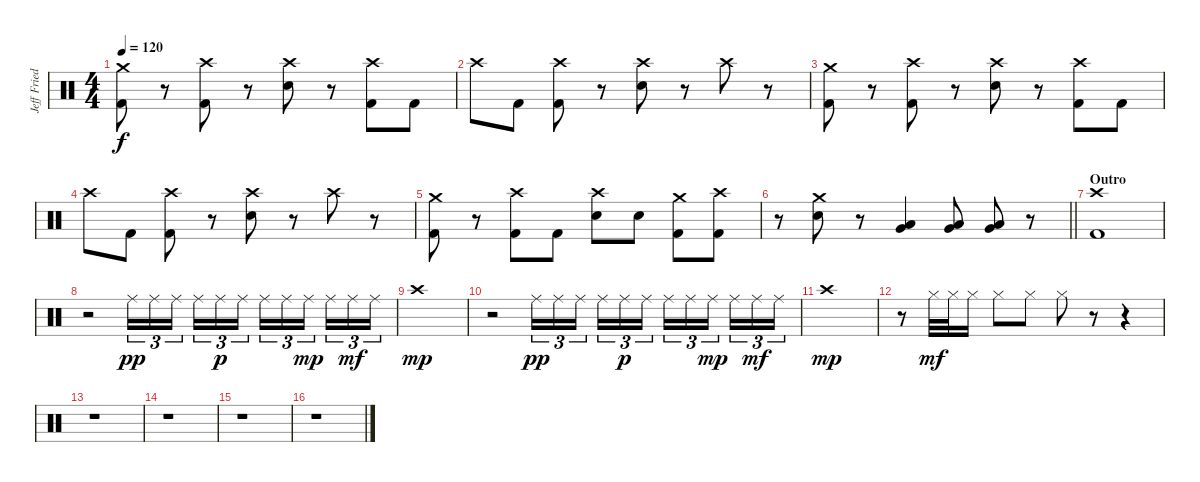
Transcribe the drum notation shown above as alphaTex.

\track ("Jeff Friedl" "Jeff Fried") {instrument percussion}
\staff {score}
\articulation defaults
\ts (4 4)
\tempo 120
\clef neutral
\ks c
("Crash medium (hit)" "Kick (hit) 2").8{dy f} r.8 ("Crash high (hit)" "Kick (hit) 2").8 r.8 ("Crash high (hit)" "Snare (hit) 2").8 r.8 ("Crash high (hit)" "Kick (hit) 2").8 "Kick (hit) 2".8 |
"Crash high (hit)".8 "Kick (hit) 2".8 ("Crash high (hit)" "Kick (hit) 2").8 r.8 ("Crash high (hit)" "Snare (hit) 2").8 r.8 "Crash high (hit)".8 r.8 |
("Crash medium (hit)" "Kick (hit) 2").8 r.8 ("Crash high (hit)" "Kick (hit) 2").8 r.8 ("Crash high (hit)" "Snare (hit) 2").8 r.8 ("Crash high (hit)" "Kick (hit) 2").8 "Kick (hit) 2".8 |
"Crash high (hit)".8 "Kick (hit) 2".8 ("Crash high (hit)" "Kick (hit) 2").8 r.8 ("Crash high (hit)" "Snare (hit) 2").8 r.8 "Crash high (hit)".8 r.8 |
("Crash medium (hit)" "Kick (hit) 2").8 r.8 ("Crash high (hit)" "Kick (hit) 2").8 "Kick (hit) 2".8 ("Crash high (hit)" "Snare (hit) 2").8 "Snare (hit) 2".8 ("Crash medium (hit)" "Kick (hit) 2").8 ("Crash high (hit)" "Kick (hit) 2").8 |
\barLineRight lightlight
r.8 ("Crash medium (hit)" "Snare (hit) 2").8 r.8 ("Low Tom (hit)" "Very Low Tom (hit)").4 ("Very Low Tom (hit)" "Low Floor Tom (hit)").8 ("Very Low Tom (hit)" "Low Floor Tom (hit)").8 r.8 |
\section ("" "Outro")
("Crash high (hit)" "Kick (hit) 2").1 |
r.2 "Ride (middle)".16{tu (3 2) dy pp} "Ride (middle)".16{tu (3 2)} "Ride (middle)".16{tu (3 2) beam splitsecondary} "Ride (middle)".16{tu (3 2)} "Ride (middle)".16{tu (3 2) dy p} "Ride (middle)".16{tu (3 2)} "Ride (middle)".16{tu (3 2)} "Ride (middle)".16{tu (3 2)} "Ride (middle)".16{tu (3 2) dy mp beam splitsecondary} "Ride (middle)".16{tu (3 2)} "Ride (middle)".16{tu (3 2) dy mf} "Ride (middle)".16{tu (3 2)} |
"Crash high (hit)".1{dy mp} |
r.2 "Ride (middle)".16{tu (3 2) dy pp} "Ride (middle)".16{tu (3 2)} "Ride (middle)".16{tu (3 2) beam splitsecondary} "Ride (middle)".16{tu (3 2)} "Ride (middle)".16{tu (3 2) dy p} "Ride (middle)".16{tu (3 2)} "Ride (middle)".16{tu (3 2)} "Ride (middle)".16{tu (3 2)} "Ride (middle)".16{tu (3 2) dy mp beam splitsecondary} "Ride (middle)".16{tu (3 2)} "Ride (middle)".16{tu (3 2) dy mf} "Ride (middle)".16{tu (3 2)} |
"Crash high (hit)".1{dy mp} |
r.8 "Hi-Hat (closed)".32{dy mf} "Hi-Hat (closed)".32 "Hi-Hat (closed)".16 "Hi-Hat (closed)".8 "Hi-Hat (closed)".8 "Hi-Hat (closed)".8 r.8 r.4 |
r.1 |
r.1 |
r.1 |
r.1
